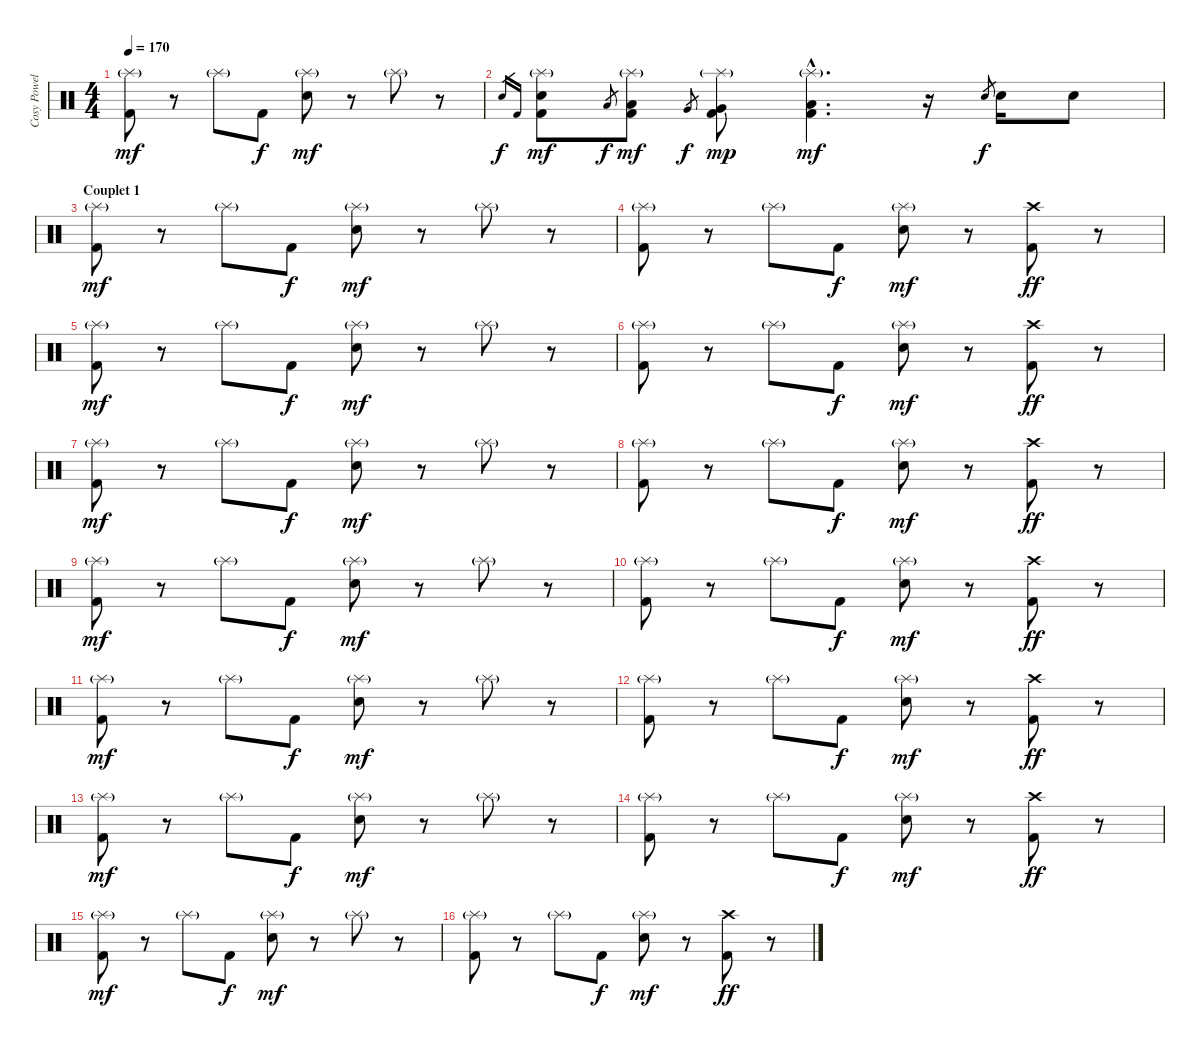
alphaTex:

\track ("Cosy Powell" "Cosy Powel") {instrument percussion}
\staff {score}
\articulation defaults
\ts (4 4)
\tempo 170
\clef neutral
\ks c
("Splash (hit)"{g} "Kick (hit) 2").8{dy mf} r.8 "Splash (hit)"{g}.8 "Kick (hit) 2".8{dy f} ("Splash (hit)"{g} "Snare (hit) 2").8{dy mf} r.8 "Splash (hit)"{g}.8 r.8 |
"Snare (hit) 2".16{gr dy f} "Kick (hit) 2".16{gr} ("Splash (hit)"{g} "Snare (hit) 2" "Kick (hit) 2").8{dy mf} "Low Floor Tom (hit)".8{gr dy f} ("Splash (hit)"{g} "Low Floor Tom (hit)" "Kick (hit) 2").8{dy mf} "Very Low Tom (hit)".8{gr dy f} ("Splash (hit)"{g} "Very Low Tom (hit)" "Kick (hit) 2").8{dy mp} ("Splash (hit)"{g hac} "Low Tom (hit)"{hac} "Kick (hit) 2"{hac}).4{d dy mf} r.16 "Snare (hit) 2".8{gr dy f} "Snare (hit) 2".16 "Snare (hit) 2".8 |
\section ("" "Couplet 1")
("Splash (hit)"{g} "Kick (hit) 2").8{dy mf} r.8 "Splash (hit)"{g}.8 "Kick (hit) 2".8{dy f} ("Splash (hit)"{g} "Snare (hit) 2").8{dy mf} r.8 "Splash (hit)"{g}.8 r.8 |
("Splash (hit)"{g} "Kick (hit) 2").8 r.8 "Splash (hit)"{g}.8 "Kick (hit) 2".8{dy f} ("Splash (hit)"{g} "Snare (hit) 2").8{dy mf} r.8 ("Crash high (hit)" "Kick (hit) 2").8{dy ff} r.8 |
("Splash (hit)"{g} "Kick (hit) 2").8{dy mf} r.8 "Splash (hit)"{g}.8 "Kick (hit) 2".8{dy f} ("Splash (hit)"{g} "Snare (hit) 2").8{dy mf} r.8 "Splash (hit)"{g}.8 r.8 |
("Splash (hit)"{g} "Kick (hit) 2").8 r.8 "Splash (hit)"{g}.8 "Kick (hit) 2".8{dy f} ("Splash (hit)"{g} "Snare (hit) 2").8{dy mf} r.8 ("Crash high (hit)" "Kick (hit) 2").8{dy ff} r.8 |
("Splash (hit)"{g} "Kick (hit) 2").8{dy mf} r.8 "Splash (hit)"{g}.8 "Kick (hit) 2".8{dy f} ("Splash (hit)"{g} "Snare (hit) 2").8{dy mf} r.8 "Splash (hit)"{g}.8 r.8 |
("Splash (hit)"{g} "Kick (hit) 2").8 r.8 "Splash (hit)"{g}.8 "Kick (hit) 2".8{dy f} ("Splash (hit)"{g} "Snare (hit) 2").8{dy mf} r.8 ("Crash high (hit)" "Kick (hit) 2").8{dy ff} r.8 |
("Splash (hit)"{g} "Kick (hit) 2").8{dy mf} r.8 "Splash (hit)"{g}.8 "Kick (hit) 2".8{dy f} ("Splash (hit)"{g} "Snare (hit) 2").8{dy mf} r.8 "Splash (hit)"{g}.8 r.8 |
("Splash (hit)"{g} "Kick (hit) 2").8 r.8 "Splash (hit)"{g}.8 "Kick (hit) 2".8{dy f} ("Splash (hit)"{g} "Snare (hit) 2").8{dy mf} r.8 ("Crash high (hit)" "Kick (hit) 2").8{dy ff} r.8 |
("Splash (hit)"{g} "Kick (hit) 2").8{dy mf} r.8 "Splash (hit)"{g}.8 "Kick (hit) 2".8{dy f} ("Splash (hit)"{g} "Snare (hit) 2").8{dy mf} r.8 "Splash (hit)"{g}.8 r.8 |
("Splash (hit)"{g} "Kick (hit) 2").8 r.8 "Splash (hit)"{g}.8 "Kick (hit) 2".8{dy f} ("Splash (hit)"{g} "Snare (hit) 2").8{dy mf} r.8 ("Crash high (hit)" "Kick (hit) 2").8{dy ff} r.8 |
("Splash (hit)"{g} "Kick (hit) 2").8{dy mf} r.8 "Splash (hit)"{g}.8 "Kick (hit) 2".8{dy f} ("Splash (hit)"{g} "Snare (hit) 2").8{dy mf} r.8 "Splash (hit)"{g}.8 r.8 |
("Splash (hit)"{g} "Kick (hit) 2").8 r.8 "Splash (hit)"{g}.8 "Kick (hit) 2".8{dy f} ("Splash (hit)"{g} "Snare (hit) 2").8{dy mf} r.8 ("Crash high (hit)" "Kick (hit) 2").8{dy ff} r.8 |
("Splash (hit)"{g} "Kick (hit) 2").8{dy mf} r.8 "Splash (hit)"{g}.8 "Kick (hit) 2".8{dy f} ("Splash (hit)"{g} "Snare (hit) 2").8{dy mf} r.8 "Splash (hit)"{g}.8 r.8 |
("Splash (hit)"{g} "Kick (hit) 2").8 r.8 "Splash (hit)"{g}.8 "Kick (hit) 2".8{dy f} ("Splash (hit)"{g} "Snare (hit) 2").8{dy mf} r.8 ("Crash high (hit)" "Kick (hit) 2").8{dy ff} r.8
